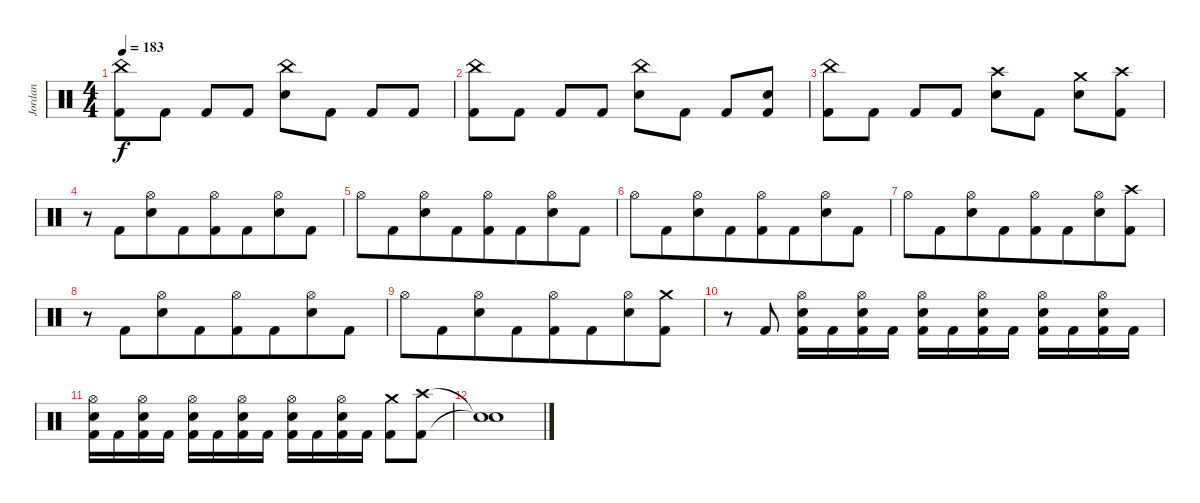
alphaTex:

\track ("Jordan" "Jordan") {instrument percussion bank 82}
\staff {score}
\articulation defaults
\ts (4 4)
\tempo 183
\clef neutral
\ks c
("China (hit)" "Kick (hit) 2").8{dy f} "Kick (hit) 2".8 "Kick (hit) 2".8{beam merge} "Kick (hit) 2".8 ("China (hit)" "Snare (hit) 2").8{beam merge} "Kick (hit) 2".8 "Kick (hit) 2".8 "Kick (hit) 2".8 |
("China (hit)" "Kick (hit) 2").8 "Kick (hit) 2".8 "Kick (hit) 2".8{beam merge} "Kick (hit) 2".8 ("China (hit)" "Snare (hit) 2").8{beam merge} "Kick (hit) 2".8 "Kick (hit) 2".8 ("Snare (hit) 2" "Kick (hit) 2").8 |
("China (hit)" "Kick (hit) 2").8 "Kick (hit) 2".8 "Kick (hit) 2".8{beam merge} "Kick (hit) 2".8 ("Crash high (hit)" "Snare (hit) 2").8{beam merge} "Kick (hit) 2".8 ("Crash medium (hit)" "Snare (hit) 2").8 ("Crash high (hit)" "Kick (hit) 2").8 |
r.8 "Kick (hit) 2".8{beam merge} ("Hi-Hat (open)" "Snare (hit) 2").8 "Kick (hit) 2".8{beam merge} ("Hi-Hat (open)" "Kick (hit) 2").8 "Kick (hit) 2".8{beam merge} ("Hi-Hat (open)" "Snare (hit) 2").8 "Kick (hit) 2".8 |
"Hi-Hat (open)".8 "Kick (hit) 2".8{beam merge} ("Hi-Hat (open)" "Snare (hit) 2").8 "Kick (hit) 2".8{beam merge} ("Hi-Hat (open)" "Kick (hit) 2").8 "Kick (hit) 2".8{beam merge} ("Hi-Hat (open)" "Snare (hit) 2").8 "Kick (hit) 2".8 |
"Hi-Hat (open)".8 "Kick (hit) 2".8{beam merge} ("Hi-Hat (open)" "Snare (hit) 2").8 "Kick (hit) 2".8{beam merge} ("Hi-Hat (open)" "Kick (hit) 2").8 "Kick (hit) 2".8{beam merge} ("Hi-Hat (open)" "Snare (hit) 2").8 "Kick (hit) 2".8 |
"Hi-Hat (open)".8 "Kick (hit) 2".8{beam merge} ("Hi-Hat (open)" "Snare (hit) 2").8 "Kick (hit) 2".8{beam merge} ("Hi-Hat (open)" "Kick (hit) 2").8 "Kick (hit) 2".8{beam merge} ("Hi-Hat (open)" "Snare (hit) 2").8 ("Crash high (hit)" "Kick (hit) 2").8 |
r.8 "Kick (hit) 2".8{beam merge} ("Hi-Hat (open)" "Snare (hit) 2").8 "Kick (hit) 2".8{beam merge} ("Hi-Hat (open)" "Kick (hit) 2").8 "Kick (hit) 2".8{beam merge} ("Hi-Hat (open)" "Snare (hit) 2").8 "Kick (hit) 2".8 |
"Hi-Hat (open)".8 "Kick (hit) 2".8{beam merge} ("Hi-Hat (open)" "Snare (hit) 2").8 "Kick (hit) 2".8{beam merge} ("Hi-Hat (open)" "Kick (hit) 2").8 "Kick (hit) 2".8{beam merge} ("Hi-Hat (open)" "Snare (hit) 2").8 ("Crash medium (hit)" "Kick (hit) 2").8 |
r.8 "Kick (hit) 2".8 ("Hi-Hat (open)" "Snare (hit) 2" "Kick (hit) 2").16 "Kick (hit) 2".16{beam merge} ("Hi-Hat (open)" "Snare (hit) 2" "Kick (hit) 2").16{beam merge} "Kick (hit) 2".16 ("Hi-Hat (open)" "Snare (hit) 2" "Kick (hit) 2").16 "Kick (hit) 2".16{beam merge} ("Hi-Hat (open)" "Snare (hit) 2" "Kick (hit) 2").16{beam merge} "Kick (hit) 2".16 ("Hi-Hat (open)" "Snare (hit) 2" "Kick (hit) 2").16 "Kick (hit) 2".16{beam merge} ("Hi-Hat (open)" "Snare (hit) 2" "Kick (hit) 2").16{beam merge} "Kick (hit) 2".16 |
("Hi-Hat (open)" "Snare (hit) 2" "Kick (hit) 2").16 "Kick (hit) 2".16{beam merge} ("Hi-Hat (open)" "Snare (hit) 2" "Kick (hit) 2").16{beam merge} "Kick (hit) 2".16 ("Hi-Hat (open)" "Snare (hit) 2" "Kick (hit) 2").16 "Kick (hit) 2".16{beam merge} ("Hi-Hat (open)" "Snare (hit) 2" "Kick (hit) 2").16{beam merge} "Kick (hit) 2".16 ("Hi-Hat (open)" "Snare (hit) 2" "Kick (hit) 2").16 "Kick (hit) 2".16{beam merge} ("Hi-Hat (open)" "Snare (hit) 2" "Kick (hit) 2").16{beam merge} "Kick (hit) 2".16 ("Crash medium (hit)" "Kick (hit) 2").8 ("Crash high (hit)" "Kick (hit) 2").8 |
("Snare (hit)"{t} "Snare (hit)"{t}).1
